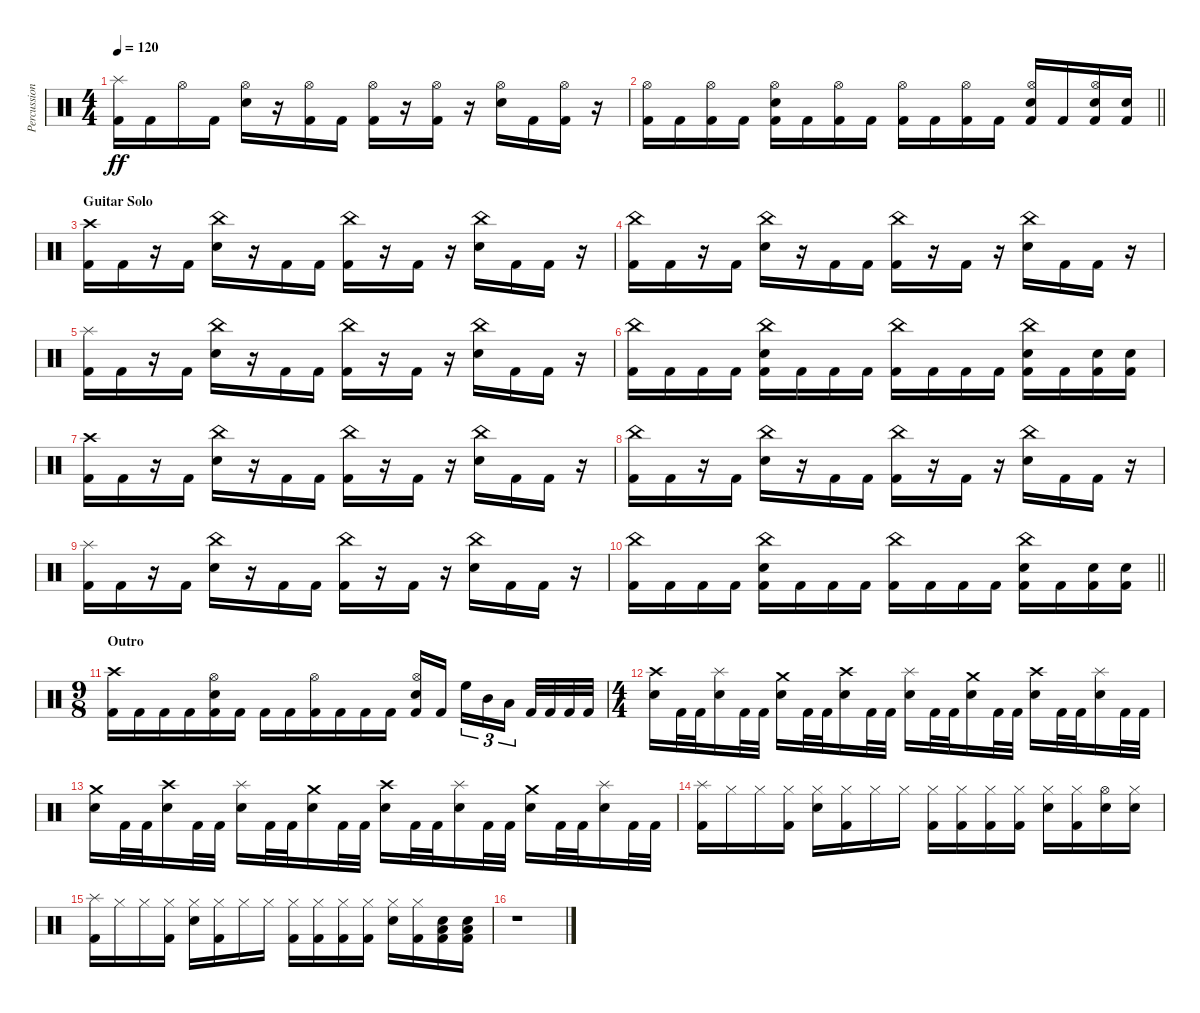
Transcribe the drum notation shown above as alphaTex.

\track ("Percussion" "Percussion") {instrument percussion}
\staff {score}
\articulation defaults
\ts (4 4)
\tempo 120
\clef neutral
\ks c
("Splash (hit)" "Kick (hit) 2").16{dy ff} "Kick (hit) 2".16 "Hi-Hat (open)".16 "Kick (hit) 2".16 ("Hi-Hat (open)" "Electric Snare (hit)").16 r.16 ("Hi-Hat (open)" "Kick (hit) 2").16 "Kick (hit) 2".16 ("Hi-Hat (open)" "Kick (hit) 2").16 r.16 ("Hi-Hat (open)" "Kick (hit) 2").16 r.16 ("Hi-Hat (open)" "Electric Snare (hit)").16 "Kick (hit) 2".16 ("Hi-Hat (open)" "Kick (hit) 2").16 r.16 |
\barLineRight lightlight
("Hi-Hat (open)" "Kick (hit) 2").16 "Kick (hit) 2".16 ("Hi-Hat (open)" "Kick (hit) 2").16 "Kick (hit) 2".16 ("Hi-Hat (open)" "Electric Snare (hit)" "Kick (hit) 2").16 "Kick (hit) 2".16 ("Hi-Hat (open)" "Kick (hit) 2").16 "Kick (hit) 2".16 ("Hi-Hat (open)" "Kick (hit) 2").16 "Kick (hit) 2".16 ("Hi-Hat (open)" "Kick (hit) 2").16 "Kick (hit) 2".16 ("Hi-Hat (open)" "Electric Snare (hit)" "Kick (hit) 2").16 "Kick (hit) 2".16 ("Hi-Hat (open)" "Electric Snare (hit)" "Kick (hit) 2").16 ("Electric Snare (hit)" "Kick (hit) 2").16 |
\section ("" "Guitar Solo")
("Crash high (hit)" "Kick (hit) 2").16 "Kick (hit) 2".16 r.16 "Kick (hit) 2".16 ("China (hit)" "Electric Snare (hit)").16 r.16 "Kick (hit) 2".16 "Kick (hit) 2".16 ("China (hit)" "Kick (hit) 2").16 r.16 "Kick (hit) 2".16 r.16 ("China (hit)" "Electric Snare (hit)").16 "Kick (hit) 2".16 "Kick (hit) 2".16 r.16 |
("China (hit)" "Kick (hit) 2").16 "Kick (hit) 2".16 r.16 "Kick (hit) 2".16 ("China (hit)" "Electric Snare (hit)").16 r.16 "Kick (hit) 2".16 "Kick (hit) 2".16 ("China (hit)" "Kick (hit) 2").16 r.16 "Kick (hit) 2".16 r.16 ("China (hit)" "Electric Snare (hit)").16 "Kick (hit) 2".16 "Kick (hit) 2".16 r.16 |
("Splash (hit)" "Kick (hit) 2").16 "Kick (hit) 2".16 r.16 "Kick (hit) 2".16 ("China (hit)" "Electric Snare (hit)").16 r.16 "Kick (hit) 2".16 "Kick (hit) 2".16 ("China (hit)" "Kick (hit) 2").16 r.16 "Kick (hit) 2".16 r.16 ("China (hit)" "Electric Snare (hit)").16 "Kick (hit) 2".16 "Kick (hit) 2".16 r.16 |
("China (hit)" "Kick (hit) 2").16 "Kick (hit) 2".16 "Kick (hit) 2".16 "Kick (hit) 2".16 ("China (hit)" "Electric Snare (hit)" "Kick (hit) 2").16 "Kick (hit) 2".16 "Kick (hit) 2".16 "Kick (hit) 2".16 ("China (hit)" "Kick (hit) 2").16 "Kick (hit) 2".16 "Kick (hit) 2".16 "Kick (hit) 2".16 ("China (hit)" "Electric Snare (hit)" "Kick (hit) 2").16 "Kick (hit) 2".16 ("Electric Snare (hit)" "Kick (hit) 2").16 ("Electric Snare (hit)" "Kick (hit) 2").16 |
("Crash high (hit)" "Kick (hit) 2").16 "Kick (hit) 2".16 r.16 "Kick (hit) 2".16 ("China (hit)" "Electric Snare (hit)").16 r.16 "Kick (hit) 2".16 "Kick (hit) 2".16 ("China (hit)" "Kick (hit) 2").16 r.16 "Kick (hit) 2".16 r.16 ("China (hit)" "Electric Snare (hit)").16 "Kick (hit) 2".16 "Kick (hit) 2".16 r.16 |
("China (hit)" "Kick (hit) 2").16 "Kick (hit) 2".16 r.16 "Kick (hit) 2".16 ("China (hit)" "Electric Snare (hit)").16 r.16 "Kick (hit) 2".16 "Kick (hit) 2".16 ("China (hit)" "Kick (hit) 2").16 r.16 "Kick (hit) 2".16 r.16 ("China (hit)" "Electric Snare (hit)").16 "Kick (hit) 2".16 "Kick (hit) 2".16 r.16 |
("Splash (hit)" "Kick (hit) 2").16 "Kick (hit) 2".16 r.16 "Kick (hit) 2".16 ("China (hit)" "Electric Snare (hit)").16 r.16 "Kick (hit) 2".16 "Kick (hit) 2".16 ("China (hit)" "Kick (hit) 2").16 r.16 "Kick (hit) 2".16 r.16 ("China (hit)" "Electric Snare (hit)").16 "Kick (hit) 2".16 "Kick (hit) 2".16 r.16 |
\barLineRight lightlight
("China (hit)" "Kick (hit) 2").16 "Kick (hit) 2".16 "Kick (hit) 2".16 "Kick (hit) 2".16 ("China (hit)" "Electric Snare (hit)" "Kick (hit) 2").16 "Kick (hit) 2".16 "Kick (hit) 2".16 "Kick (hit) 2".16 ("China (hit)" "Kick (hit) 2").16 "Kick (hit) 2".16 "Kick (hit) 2".16 "Kick (hit) 2".16 ("China (hit)" "Electric Snare (hit)" "Kick (hit) 2").16 "Kick (hit) 2".16 ("Electric Snare (hit)" "Kick (hit) 2").16 ("Electric Snare (hit)" "Kick (hit) 2").16 |
\ts (9 8)
\section ("" "Outro")
("Crash high (hit)" "Kick (hit) 2").16 "Kick (hit) 2".16 "Kick (hit) 2".16 "Kick (hit) 2".16 ("Hi-Hat (open)" "Electric Snare (hit)" "Kick (hit) 2").16 "Kick (hit) 2".16 "Kick (hit) 2".16 "Kick (hit) 2".16 ("Hi-Hat (open)" "Kick (hit) 2").16 "Kick (hit) 2".16 "Kick (hit) 2".16 "Kick (hit) 2".16 ("Hi-Hat (open)" "Electric Snare (hit)" "Kick (hit) 2").16 "Kick (hit) 2".16{beam splitsecondary} "High Floor Tom (hit)".16{tu (3 2)} "Mid Tom (hit)".16{tu (3 2)} "Low Floor Tom (hit)".16{tu (3 2) beam splitsecondary} "Kick (hit) 2".32 "Kick (hit) 2".32 "Kick (hit) 2".32 "Kick (hit) 2".32 |
\ts (4 4)
("Crash high (hit)" "Electric Snare (hit)").16 "Kick (hit) 2".32 "Kick (hit) 2".32 ("Splash (hit)" "Electric Snare (hit)").16 "Kick (hit) 2".32 "Kick (hit) 2".32 ("Crash medium (hit)" "Electric Snare (hit)").16 "Kick (hit) 2".32 "Kick (hit) 2".32 ("Crash high (hit)" "Electric Snare (hit)").16 "Kick (hit) 2".32 "Kick (hit) 2".32 ("Splash (hit)" "Electric Snare (hit)").16 "Kick (hit) 2".32 "Kick (hit) 2".32 ("Crash medium (hit)" "Electric Snare (hit)").16 "Kick (hit) 2".32 "Kick (hit) 2".32 ("Crash high (hit)" "Electric Snare (hit)").16 "Kick (hit) 2".32 "Kick (hit) 2".32 ("Splash (hit)" "Electric Snare (hit)").16 "Kick (hit) 2".32 "Kick (hit) 2".32 |
("Crash medium (hit)" "Electric Snare (hit)").16 "Kick (hit) 2".32 "Kick (hit) 2".32 ("Crash high (hit)" "Electric Snare (hit)").16 "Kick (hit) 2".32 "Kick (hit) 2".32 ("Splash (hit)" "Electric Snare (hit)").16 "Kick (hit) 2".32 "Kick (hit) 2".32 ("Crash medium (hit)" "Electric Snare (hit)").16 "Kick (hit) 2".32 "Kick (hit) 2".32 ("Crash high (hit)" "Electric Snare (hit)").16 "Kick (hit) 2".32 "Kick (hit) 2".32 ("Splash (hit)" "Electric Snare (hit)").16 "Kick (hit) 2".32 "Kick (hit) 2".32 ("Crash medium (hit)" "Electric Snare (hit)").16 "Kick (hit) 2".32 "Kick (hit) 2".32 ("Splash (hit)" "Electric Snare (hit)").16 "Kick (hit) 2".32 "Kick (hit) 2".32 |
("Splash (hit)" "Kick (hit) 2").16 "Hi-Hat (closed)".16 "Hi-Hat (closed)".16 ("Hi-Hat (closed)" "Kick (hit) 2").16 ("Hi-Hat (closed)" "Electric Snare (hit)").16 ("Hi-Hat (closed)" "Kick (hit) 2").16 "Hi-Hat (closed)".16 "Hi-Hat (closed)".16 ("Hi-Hat (closed)" "Kick (hit) 2").16 ("Hi-Hat (closed)" "Kick (hit) 2").16 ("Hi-Hat (closed)" "Kick (hit) 2").16 ("Hi-Hat (closed)" "Kick (hit) 2").16 ("Hi-Hat (closed)" "Electric Snare (hit)").16 ("Hi-Hat (closed)" "Kick (hit) 2").16 ("Hi-Hat (open)" "Electric Snare (hit)").16 ("Hi-Hat (closed)" "Electric Snare (hit)").16 |
("Splash (hit)" "Kick (hit) 2").16 "Hi-Hat (closed)".16 "Hi-Hat (closed)".16 ("Hi-Hat (closed)" "Kick (hit) 2").16 ("Hi-Hat (closed)" "Electric Snare (hit)").16 ("Hi-Hat (closed)" "Kick (hit) 2").16 "Hi-Hat (closed)".16 "Hi-Hat (closed)".16 ("Hi-Hat (closed)" "Kick (hit) 2").16 ("Hi-Hat (closed)" "Kick (hit) 2").16 ("Hi-Hat (closed)" "Kick (hit) 2").16 ("Hi-Hat (closed)" "Kick (hit) 2").16 ("Hi-Hat (closed)" "Electric Snare (hit)").16 ("Hi-Hat (closed)" "Kick (hit) 2").16 ("Electric Snare (hit)" "Low Floor Tom (hit)" "Kick (hit) 2").16 ("Electric Snare (hit)" "Low Floor Tom (hit)" "Kick (hit) 2").16 |
r.1
